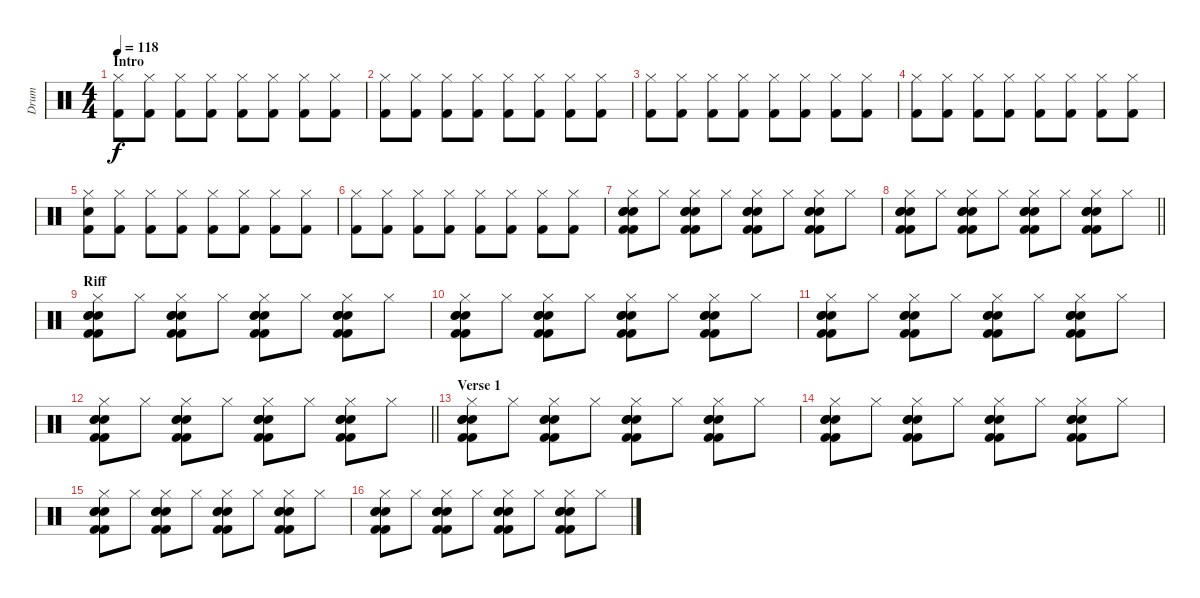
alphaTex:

\track ("Drum" "Drum") {instrument percussion}
\staff {score}
\articulation defaults
\ts (4 4)
\section ("" "Intro")
\tempo 118
\clef neutral
\ks c
("Hi-Hat (closed)" "Kick (hit) 2").8{dy f volume 7} ("Hi-Hat (closed)" "Kick (hit) 2").8 ("Hi-Hat (closed)" "Kick (hit) 2").8 ("Hi-Hat (closed)" "Kick (hit) 2").8 ("Hi-Hat (closed)" "Kick (hit) 2").8 ("Hi-Hat (closed)" "Kick (hit) 2").8 ("Hi-Hat (closed)" "Kick (hit) 2").8 ("Hi-Hat (closed)" "Kick (hit) 2").8 |
("Hi-Hat (closed)" "Kick (hit) 2").8 ("Hi-Hat (closed)" "Kick (hit) 2").8 ("Hi-Hat (closed)" "Kick (hit) 2").8 ("Hi-Hat (closed)" "Kick (hit) 2").8 ("Hi-Hat (closed)" "Kick (hit) 2").8 ("Hi-Hat (closed)" "Kick (hit) 2").8 ("Hi-Hat (closed)" "Kick (hit) 2").8 ("Hi-Hat (closed)" "Kick (hit) 2").8 |
("Hi-Hat (closed)" "Kick (hit) 2").8 ("Hi-Hat (closed)" "Kick (hit) 2").8 ("Hi-Hat (closed)" "Kick (hit) 2").8 ("Hi-Hat (closed)" "Kick (hit) 2").8 ("Hi-Hat (closed)" "Kick (hit) 2").8 ("Hi-Hat (closed)" "Kick (hit) 2").8 ("Hi-Hat (closed)" "Kick (hit) 2").8 ("Hi-Hat (closed)" "Kick (hit) 2").8 |
("Hi-Hat (closed)" "Kick (hit) 2").8 ("Hi-Hat (closed)" "Kick (hit) 2").8 ("Hi-Hat (closed)" "Kick (hit) 2").8 ("Hi-Hat (closed)" "Kick (hit) 2").8 ("Hi-Hat (closed)" "Kick (hit) 2").8 ("Hi-Hat (closed)" "Kick (hit) 2").8 ("Hi-Hat (closed)" "Kick (hit) 2").8 ("Hi-Hat (closed)" "Kick (hit) 2").8 |
("Hi-Hat (closed)" "Snare (hit) 2" "Kick (hit) 2").8 ("Hi-Hat (closed)" "Kick (hit) 2").8 ("Hi-Hat (closed)" "Kick (hit) 2").8 ("Hi-Hat (closed)" "Kick (hit) 2").8 ("Hi-Hat (closed)" "Kick (hit) 2").8 ("Hi-Hat (closed)" "Kick (hit) 2").8 ("Hi-Hat (closed)" "Kick (hit) 2").8 ("Hi-Hat (closed)" "Kick (hit) 2").8 |
("Hi-Hat (closed)" "Kick (hit) 2").8 ("Hi-Hat (closed)" "Kick (hit) 2").8 ("Hi-Hat (closed)" "Kick (hit) 2").8 ("Hi-Hat (closed)" "Kick (hit) 2").8 ("Hi-Hat (closed)" "Kick (hit) 2").8 ("Hi-Hat (closed)" "Kick (hit) 2").8 ("Hi-Hat (closed)" "Kick (hit) 2").8 ("Hi-Hat (closed)" "Kick (hit) 2").8 |
("Hi-Hat (closed)" "Kick (hit) 2" "Kick (hit) 2" "Snare (hit) 2" "Snare (hit) 2" "Snare (hit) 2").8 "Hi-Hat (closed)".8 ("Hi-Hat (closed)" "Kick (hit) 2" "Kick (hit) 2" "Snare (hit) 2" "Snare (hit) 2" "Snare (hit) 2").8 "Hi-Hat (closed)".8 ("Hi-Hat (closed)" "Kick (hit) 2" "Kick (hit) 2" "Snare (hit) 2" "Snare (hit) 2" "Snare (hit) 2").8 "Hi-Hat (closed)".8 ("Hi-Hat (closed)" "Kick (hit) 2" "Kick (hit) 2" "Snare (hit) 2" "Snare (hit) 2" "Snare (hit) 2").8 "Hi-Hat (closed)".8 |
\barLineRight lightlight
("Hi-Hat (closed)" "Kick (hit) 2" "Kick (hit) 2" "Snare (hit) 2" "Snare (hit) 2" "Snare (hit) 2").8 "Hi-Hat (closed)".8 ("Hi-Hat (closed)" "Kick (hit) 2" "Kick (hit) 2" "Snare (hit) 2" "Snare (hit) 2" "Snare (hit) 2").8 "Hi-Hat (closed)".8 ("Hi-Hat (closed)" "Kick (hit) 2" "Kick (hit) 2" "Snare (hit) 2" "Snare (hit) 2" "Snare (hit) 2").8 "Hi-Hat (closed)".8 ("Hi-Hat (closed)" "Kick (hit) 2" "Kick (hit) 2" "Snare (hit) 2" "Snare (hit) 2" "Snare (hit) 2").8 "Hi-Hat (closed)".8 |
\section ("" "Riff")
("Hi-Hat (closed)" "Kick (hit) 2" "Kick (hit) 2" "Snare (hit) 2" "Snare (hit) 2" "Snare (hit) 2").8{volume 14} "Hi-Hat (closed)".8 ("Hi-Hat (closed)" "Kick (hit) 2" "Kick (hit) 2" "Snare (hit) 2" "Snare (hit) 2" "Snare (hit) 2").8 "Hi-Hat (closed)".8 ("Hi-Hat (closed)" "Kick (hit) 2" "Kick (hit) 2" "Snare (hit) 2" "Snare (hit) 2" "Snare (hit) 2").8 "Hi-Hat (closed)".8 ("Hi-Hat (closed)" "Kick (hit) 2" "Kick (hit) 2" "Snare (hit) 2" "Snare (hit) 2" "Snare (hit) 2").8 "Hi-Hat (closed)".8 |
("Hi-Hat (closed)" "Kick (hit) 2" "Kick (hit) 2" "Snare (hit) 2" "Snare (hit) 2" "Snare (hit) 2").8 "Hi-Hat (closed)".8 ("Hi-Hat (closed)" "Kick (hit) 2" "Kick (hit) 2" "Snare (hit) 2" "Snare (hit) 2" "Snare (hit) 2").8 "Hi-Hat (closed)".8 ("Hi-Hat (closed)" "Kick (hit) 2" "Kick (hit) 2" "Snare (hit) 2" "Snare (hit) 2" "Snare (hit) 2").8 "Hi-Hat (closed)".8 ("Hi-Hat (closed)" "Kick (hit) 2" "Kick (hit) 2" "Snare (hit) 2" "Snare (hit) 2" "Snare (hit) 2").8 "Hi-Hat (closed)".8 |
("Hi-Hat (closed)" "Kick (hit) 2" "Kick (hit) 2" "Snare (hit) 2" "Snare (hit) 2" "Snare (hit) 2").8 "Hi-Hat (closed)".8 ("Hi-Hat (closed)" "Kick (hit) 2" "Kick (hit) 2" "Snare (hit) 2" "Snare (hit) 2" "Snare (hit) 2").8 "Hi-Hat (closed)".8 ("Hi-Hat (closed)" "Kick (hit) 2" "Kick (hit) 2" "Snare (hit) 2" "Snare (hit) 2" "Snare (hit) 2").8 "Hi-Hat (closed)".8 ("Hi-Hat (closed)" "Kick (hit) 2" "Kick (hit) 2" "Snare (hit) 2" "Snare (hit) 2" "Snare (hit) 2").8 "Hi-Hat (closed)".8 |
\barLineRight lightlight
("Hi-Hat (closed)" "Kick (hit) 2" "Kick (hit) 2" "Snare (hit) 2" "Snare (hit) 2" "Snare (hit) 2").8 "Hi-Hat (closed)".8 ("Hi-Hat (closed)" "Kick (hit) 2" "Kick (hit) 2" "Snare (hit) 2" "Snare (hit) 2" "Snare (hit) 2").8 "Hi-Hat (closed)".8 ("Hi-Hat (closed)" "Kick (hit) 2" "Kick (hit) 2" "Snare (hit) 2" "Snare (hit) 2" "Snare (hit) 2").8 "Hi-Hat (closed)".8 ("Hi-Hat (closed)" "Kick (hit) 2" "Kick (hit) 2" "Snare (hit) 2" "Snare (hit) 2" "Snare (hit) 2").8 "Hi-Hat (closed)".8 |
\section ("" "Verse 1")
("Hi-Hat (closed)" "Kick (hit) 2" "Kick (hit) 2" "Snare (hit) 2" "Snare (hit) 2" "Snare (hit) 2").8 "Hi-Hat (closed)".8 ("Hi-Hat (closed)" "Kick (hit) 2" "Kick (hit) 2" "Snare (hit) 2" "Snare (hit) 2" "Snare (hit) 2").8 "Hi-Hat (closed)".8 ("Hi-Hat (closed)" "Kick (hit) 2" "Kick (hit) 2" "Snare (hit) 2" "Snare (hit) 2" "Snare (hit) 2").8 "Hi-Hat (closed)".8 ("Hi-Hat (closed)" "Kick (hit) 2" "Kick (hit) 2" "Snare (hit) 2" "Snare (hit) 2" "Snare (hit) 2").8 "Hi-Hat (closed)".8 |
("Hi-Hat (closed)" "Kick (hit) 2" "Kick (hit) 2" "Snare (hit) 2" "Snare (hit) 2" "Snare (hit) 2").8 "Hi-Hat (closed)".8 ("Hi-Hat (closed)" "Kick (hit) 2" "Kick (hit) 2" "Snare (hit) 2" "Snare (hit) 2" "Snare (hit) 2").8 "Hi-Hat (closed)".8 ("Hi-Hat (closed)" "Kick (hit) 2" "Kick (hit) 2" "Snare (hit) 2" "Snare (hit) 2" "Snare (hit) 2").8 "Hi-Hat (closed)".8 ("Hi-Hat (closed)" "Kick (hit) 2" "Kick (hit) 2" "Snare (hit) 2" "Snare (hit) 2" "Snare (hit) 2").8 "Hi-Hat (closed)".8 |
("Hi-Hat (closed)" "Kick (hit) 2" "Kick (hit) 2" "Snare (hit) 2" "Snare (hit) 2" "Snare (hit) 2").8 "Hi-Hat (closed)".8 ("Hi-Hat (closed)" "Kick (hit) 2" "Kick (hit) 2" "Snare (hit) 2" "Snare (hit) 2" "Snare (hit) 2").8 "Hi-Hat (closed)".8 ("Hi-Hat (closed)" "Kick (hit) 2" "Kick (hit) 2" "Snare (hit) 2" "Snare (hit) 2" "Snare (hit) 2").8 "Hi-Hat (closed)".8 ("Hi-Hat (closed)" "Kick (hit) 2" "Kick (hit) 2" "Snare (hit) 2" "Snare (hit) 2" "Snare (hit) 2").8 "Hi-Hat (closed)".8 |
("Hi-Hat (closed)" "Kick (hit) 2" "Kick (hit) 2" "Snare (hit) 2" "Snare (hit) 2" "Snare (hit) 2").8 "Hi-Hat (closed)".8 ("Hi-Hat (closed)" "Kick (hit) 2" "Kick (hit) 2" "Snare (hit) 2" "Snare (hit) 2" "Snare (hit) 2").8 "Hi-Hat (closed)".8 ("Hi-Hat (closed)" "Kick (hit) 2" "Kick (hit) 2" "Snare (hit) 2" "Snare (hit) 2" "Snare (hit) 2").8 "Hi-Hat (closed)".8 ("Hi-Hat (closed)" "Kick (hit) 2" "Kick (hit) 2" "Snare (hit) 2" "Snare (hit) 2" "Snare (hit) 2").8 "Hi-Hat (closed)".8
